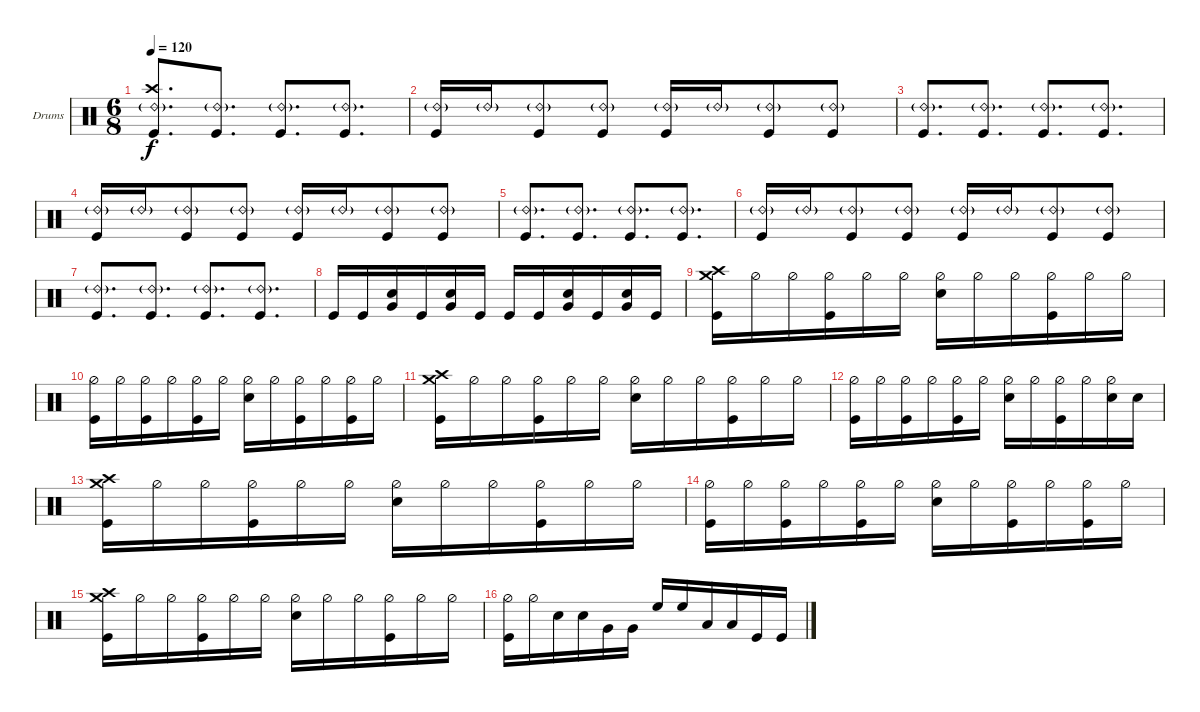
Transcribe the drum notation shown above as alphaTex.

\defaultSystemsLayout 4
\bracketExtendMode groupsimilarinstruments
\firstSystemTrackNameOrientation horizontal
\otherSystemsTrackNameOrientation horizontal
\track ("Moe Carlson" "Drums") {instrument percussion}
\staff {score}
\articulation defaults
\ts (6 8)
\tempo 120
\clef neutral
\ks c
("Kick (hit)" "Crash high (hit)" "Ride (bell) 2"{g}).8{d dy f} ("Kick (hit)" "Ride (bell) 2"{g}).8{d} ("Kick (hit)" "Ride (bell) 2"{g}).8{d} ("Kick (hit)" "Ride (bell) 2"{g}).8{d} |
("Kick (hit)" "Ride (bell) 2"{g}).16 "Ride (bell) 2"{g}.16 ("Kick (hit)" "Ride (bell) 2"{g}).8 ("Kick (hit)" "Ride (bell) 2"{g}).8 ("Kick (hit)" "Ride (bell) 2"{g}).16 "Ride (bell) 2"{g}.16 ("Kick (hit)" "Ride (bell) 2"{g}).8 ("Kick (hit)" "Ride (bell) 2"{g}).8 |
("Kick (hit)" "Ride (bell) 2"{g}).8{d} ("Kick (hit)" "Ride (bell) 2"{g}).8{d} ("Kick (hit)" "Ride (bell) 2"{g}).8{d} ("Kick (hit)" "Ride (bell) 2"{g}).8{d} |
("Kick (hit)" "Ride (bell) 2"{g}).16 "Ride (bell) 2"{g}.16 ("Kick (hit)" "Ride (bell) 2"{g}).8 ("Kick (hit)" "Ride (bell) 2"{g}).8 ("Kick (hit)" "Ride (bell) 2"{g}).16 "Ride (bell) 2"{g}.16 ("Kick (hit)" "Ride (bell) 2"{g}).8 ("Kick (hit)" "Ride (bell) 2"{g}).8 |
("Kick (hit)" "Ride (bell) 2"{g}).8{d} ("Kick (hit)" "Ride (bell) 2"{g}).8{d} ("Kick (hit)" "Ride (bell) 2"{g}).8{d} ("Kick (hit)" "Ride (bell) 2"{g}).8{d} |
("Kick (hit)" "Ride (bell) 2"{g}).16 "Ride (bell) 2"{g}.16 ("Kick (hit)" "Ride (bell) 2"{g}).8 ("Kick (hit)" "Ride (bell) 2"{g}).8 ("Kick (hit)" "Ride (bell) 2"{g}).16 "Ride (bell) 2"{g}.16 ("Kick (hit)" "Ride (bell) 2"{g}).8 ("Kick (hit)" "Ride (bell) 2"{g}).8 |
("Kick (hit)" "Ride (bell) 2"{g}).8{d} ("Kick (hit)" "Ride (bell) 2"{g}).8{d} ("Kick (hit)" "Ride (bell) 2"{g}).8{d} ("Kick (hit)" "Ride (bell) 2"{g}).8{d} |
"Kick (hit)".16 "Kick (hit)".16 ("Snare (hit) 2" "Very Low Tom (hit)").16 "Kick (hit)".16 ("Snare (hit) 2" "Very Low Tom (hit)").16 "Kick (hit)".16 "Kick (hit)".16 "Kick (hit)".16 ("Snare (hit) 2" "Very Low Tom (hit)").16 "Kick (hit)".16 ("Snare (hit) 2" "Very Low Tom (hit)").16 "Kick (hit)".16 |
("Crash high (hit)" "Crash medium (hit)" "Kick (hit)").16 "Hi-Hat (half)".16 "Hi-Hat (half)".16 ("Hi-Hat (half)" "Kick (hit)").16 "Hi-Hat (half)".16 "Hi-Hat (half)".16 ("Hi-Hat (half)" "Snare (hit) 2").16 "Hi-Hat (half)".16 "Hi-Hat (half)".16 ("Hi-Hat (half)" "Kick (hit)").16 "Hi-Hat (half)".16 "Hi-Hat (half)".16 |
("Hi-Hat (half)" "Kick (hit)").16 "Hi-Hat (half)".16 ("Hi-Hat (half)" "Kick (hit)").16 "Hi-Hat (half)".16 ("Hi-Hat (half)" "Kick (hit)").16 "Hi-Hat (half)".16 ("Hi-Hat (half)" "Snare (hit) 2").16 "Hi-Hat (half)".16 ("Hi-Hat (half)" "Kick (hit)").16 "Hi-Hat (half)".16 ("Hi-Hat (half)" "Kick (hit)").16 "Hi-Hat (half)".16 |
("Crash high (hit)" "Crash medium (hit)" "Kick (hit)").16 "Hi-Hat (half)".16 "Hi-Hat (half)".16 ("Hi-Hat (half)" "Kick (hit)").16 "Hi-Hat (half)".16 "Hi-Hat (half)".16 ("Hi-Hat (half)" "Snare (hit) 2").16 "Hi-Hat (half)".16 "Hi-Hat (half)".16 ("Hi-Hat (half)" "Kick (hit)").16 "Hi-Hat (half)".16 "Hi-Hat (half)".16 |
("Hi-Hat (half)" "Kick (hit)").16 "Hi-Hat (half)".16 ("Hi-Hat (half)" "Kick (hit)").16 "Hi-Hat (half)".16 ("Hi-Hat (half)" "Kick (hit)").16 "Hi-Hat (half)".16 ("Hi-Hat (half)" "Snare (hit) 2").16 "Hi-Hat (half)".16 ("Hi-Hat (half)" "Kick (hit)").16 "Hi-Hat (half)".16 ("Hi-Hat (half)" "Snare (hit) 2").16 "Snare (hit) 2".16 |
("Crash high (hit)" "Crash medium (hit)" "Kick (hit)").16 "Hi-Hat (half)".16 "Hi-Hat (half)".16 ("Hi-Hat (half)" "Kick (hit)").16 "Hi-Hat (half)".16 "Hi-Hat (half)".16 ("Hi-Hat (half)" "Snare (hit) 2").16 "Hi-Hat (half)".16 "Hi-Hat (half)".16 ("Hi-Hat (half)" "Kick (hit)").16 "Hi-Hat (half)".16 "Hi-Hat (half)".16 |
("Hi-Hat (half)" "Kick (hit)").16 "Hi-Hat (half)".16 ("Hi-Hat (half)" "Kick (hit)").16 "Hi-Hat (half)".16 ("Hi-Hat (half)" "Kick (hit)").16 "Hi-Hat (half)".16 ("Hi-Hat (half)" "Snare (hit) 2").16 "Hi-Hat (half)".16 ("Hi-Hat (half)" "Kick (hit)").16 "Hi-Hat (half)".16 ("Hi-Hat (half)" "Kick (hit)").16 "Hi-Hat (half)".16 |
("Crash high (hit)" "Crash medium (hit)" "Kick (hit)").16 "Hi-Hat (half)".16 "Hi-Hat (half)".16 ("Hi-Hat (half)" "Kick (hit)").16 "Hi-Hat (half)".16 "Hi-Hat (half)".16 ("Hi-Hat (half)" "Snare (hit) 2").16 "Hi-Hat (half)".16 "Hi-Hat (half)".16 ("Hi-Hat (half)" "Kick (hit)").16 "Hi-Hat (half)".16 "Hi-Hat (half)".16 |
("Hi-Hat (half)" "Kick (hit)").16 "Hi-Hat (half)".16 "Snare (hit) 2".16 "Snare (hit) 2".16 "Very Low Tom (hit)".16 "Very Low Tom (hit)".16 "High Floor Tom (hit)".16 "High Floor Tom (hit)".16 "Low Tom (hit)".16 "Low Tom (hit)".16 "Kick (hit)".16 "Kick (hit)".16
